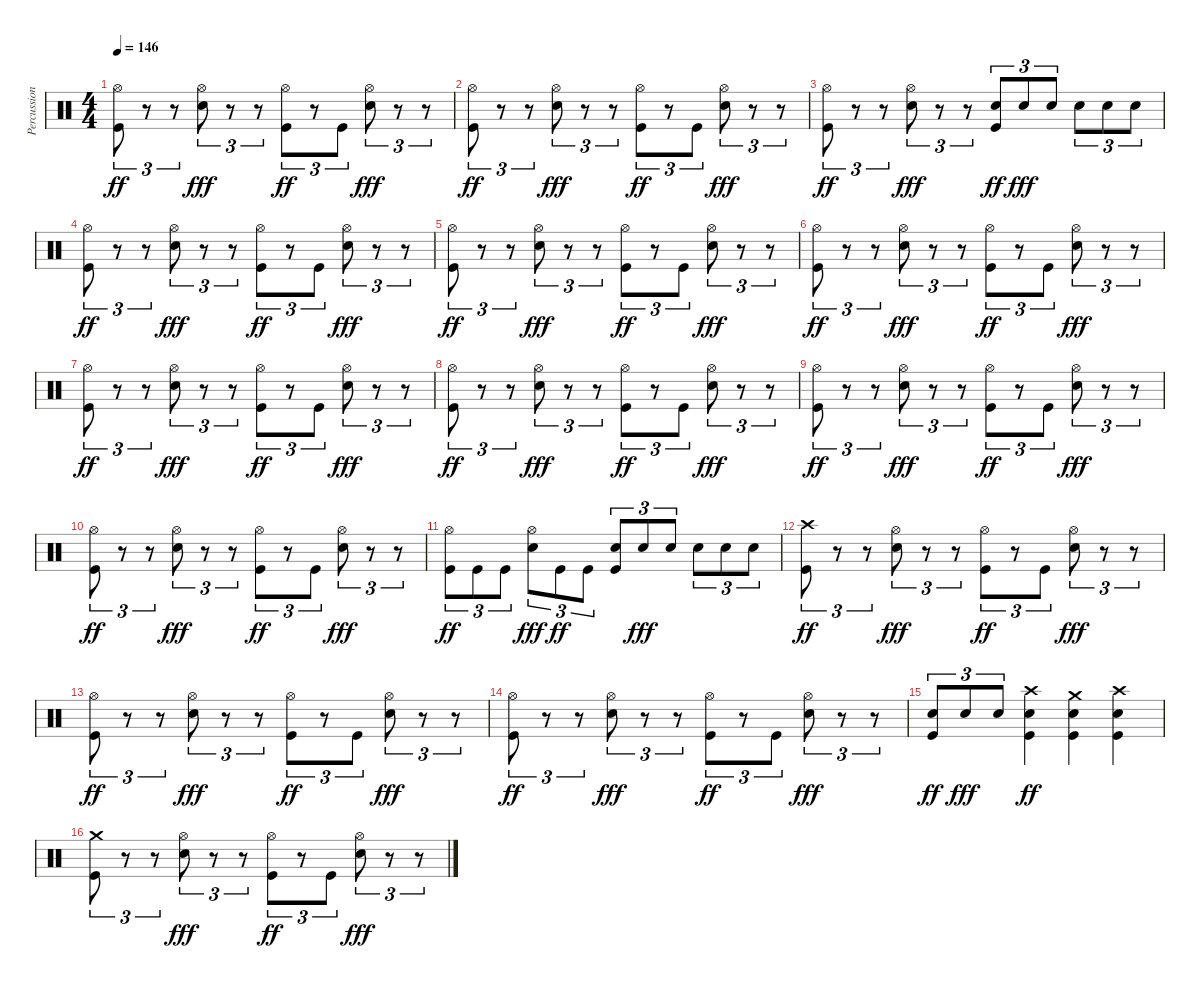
\track ("Percussion" "Percussion") {instrument percussion}
\staff {score}
\articulation defaults
\ts (4 4)
\tempo 146
\clef neutral
\ks c
("Hi-Hat (open)" "Kick (hit)").8{tu (3 2) dy ff} r.8{tu (3 2)} r.8{tu (3 2)} ("Hi-Hat (open)" "Snare (hit) 2").8{tu (3 2) dy fff} r.8{tu (3 2)} r.8{tu (3 2)} ("Hi-Hat (open)" "Kick (hit)").8{tu (3 2) dy ff} r.8{tu (3 2)} "Kick (hit)".8{tu (3 2)} ("Hi-Hat (open)" "Snare (hit) 2").8{tu (3 2) dy fff} r.8{tu (3 2)} r.8{tu (3 2)} |
("Hi-Hat (open)" "Kick (hit)").8{tu (3 2) dy ff} r.8{tu (3 2)} r.8{tu (3 2)} ("Hi-Hat (open)" "Snare (hit) 2").8{tu (3 2) dy fff} r.8{tu (3 2)} r.8{tu (3 2)} ("Hi-Hat (open)" "Kick (hit)").8{tu (3 2) dy ff} r.8{tu (3 2)} "Kick (hit)".8{tu (3 2)} ("Hi-Hat (open)" "Snare (hit) 2").8{tu (3 2) dy fff} r.8{tu (3 2)} r.8{tu (3 2)} |
("Hi-Hat (open)" "Kick (hit)").8{tu (3 2) dy ff} r.8{tu (3 2)} r.8{tu (3 2)} ("Hi-Hat (open)" "Snare (hit) 2").8{tu (3 2) dy fff} r.8{tu (3 2)} r.8{tu (3 2)} ("Snare (hit) 2" "Kick (hit)").8{tu (3 2) dy ff} "Snare (hit) 2".8{tu (3 2) dy fff} "Snare (hit) 2".8{tu (3 2)} "Snare (hit) 2".8{tu (3 2)} "Snare (hit) 2".8{tu (3 2)} "Snare (hit) 2".8{tu (3 2)} |
("Hi-Hat (open)" "Kick (hit)").8{tu (3 2) dy ff} r.8{tu (3 2)} r.8{tu (3 2)} ("Hi-Hat (open)" "Snare (hit) 2").8{tu (3 2) dy fff} r.8{tu (3 2)} r.8{tu (3 2)} ("Hi-Hat (open)" "Kick (hit)").8{tu (3 2) dy ff} r.8{tu (3 2)} "Kick (hit)".8{tu (3 2)} ("Hi-Hat (open)" "Snare (hit) 2").8{tu (3 2) dy fff} r.8{tu (3 2)} r.8{tu (3 2)} |
("Hi-Hat (open)" "Kick (hit)").8{tu (3 2) dy ff} r.8{tu (3 2)} r.8{tu (3 2)} ("Hi-Hat (open)" "Snare (hit) 2").8{tu (3 2) dy fff} r.8{tu (3 2)} r.8{tu (3 2)} ("Hi-Hat (open)" "Kick (hit)").8{tu (3 2) dy ff} r.8{tu (3 2)} "Kick (hit)".8{tu (3 2)} ("Hi-Hat (open)" "Snare (hit) 2").8{tu (3 2) dy fff} r.8{tu (3 2)} r.8{tu (3 2)} |
("Hi-Hat (open)" "Kick (hit)").8{tu (3 2) dy ff} r.8{tu (3 2)} r.8{tu (3 2)} ("Hi-Hat (open)" "Snare (hit) 2").8{tu (3 2) dy fff} r.8{tu (3 2)} r.8{tu (3 2)} ("Hi-Hat (open)" "Kick (hit)").8{tu (3 2) dy ff} r.8{tu (3 2)} "Kick (hit)".8{tu (3 2)} ("Hi-Hat (open)" "Snare (hit) 2").8{tu (3 2) dy fff} r.8{tu (3 2)} r.8{tu (3 2)} |
("Hi-Hat (open)" "Kick (hit)").8{tu (3 2) dy ff} r.8{tu (3 2)} r.8{tu (3 2)} ("Hi-Hat (open)" "Snare (hit) 2").8{tu (3 2) dy fff} r.8{tu (3 2)} r.8{tu (3 2)} ("Hi-Hat (open)" "Kick (hit)").8{tu (3 2) dy ff} r.8{tu (3 2)} "Kick (hit)".8{tu (3 2)} ("Hi-Hat (open)" "Snare (hit) 2").8{tu (3 2) dy fff} r.8{tu (3 2)} r.8{tu (3 2)} |
("Hi-Hat (open)" "Kick (hit)").8{tu (3 2) dy ff} r.8{tu (3 2)} r.8{tu (3 2)} ("Hi-Hat (open)" "Snare (hit) 2").8{tu (3 2) dy fff} r.8{tu (3 2)} r.8{tu (3 2)} ("Hi-Hat (open)" "Kick (hit)").8{tu (3 2) dy ff} r.8{tu (3 2)} "Kick (hit)".8{tu (3 2)} ("Hi-Hat (open)" "Snare (hit) 2").8{tu (3 2) dy fff} r.8{tu (3 2)} r.8{tu (3 2)} |
("Hi-Hat (open)" "Kick (hit)").8{tu (3 2) dy ff} r.8{tu (3 2)} r.8{tu (3 2)} ("Hi-Hat (open)" "Snare (hit) 2").8{tu (3 2) dy fff} r.8{tu (3 2)} r.8{tu (3 2)} ("Hi-Hat (open)" "Kick (hit)").8{tu (3 2) dy ff} r.8{tu (3 2)} "Kick (hit)".8{tu (3 2)} ("Hi-Hat (open)" "Snare (hit) 2").8{tu (3 2) dy fff} r.8{tu (3 2)} r.8{tu (3 2)} |
("Hi-Hat (open)" "Kick (hit)").8{tu (3 2) dy ff} r.8{tu (3 2)} r.8{tu (3 2)} ("Hi-Hat (open)" "Snare (hit) 2").8{tu (3 2) dy fff} r.8{tu (3 2)} r.8{tu (3 2)} ("Hi-Hat (open)" "Kick (hit)").8{tu (3 2) dy ff} r.8{tu (3 2)} "Kick (hit)".8{tu (3 2)} ("Hi-Hat (open)" "Snare (hit) 2").8{tu (3 2) dy fff} r.8{tu (3 2)} r.8{tu (3 2)} |
("Hi-Hat (open)" "Kick (hit)").8{tu (3 2) dy ff} "Kick (hit)".8{tu (3 2)} "Kick (hit)".8{tu (3 2)} ("Hi-Hat (open)" "Snare (hit) 2").8{tu (3 2) dy fff} "Kick (hit)".8{tu (3 2) dy ff} "Kick (hit)".8{tu (3 2)} ("Snare (hit) 2" "Kick (hit)").8{tu (3 2)} "Snare (hit) 2".8{tu (3 2) dy fff} "Snare (hit) 2".8{tu (3 2)} "Snare (hit) 2".8{tu (3 2)} "Snare (hit) 2".8{tu (3 2)} "Snare (hit) 2".8{tu (3 2)} |
("Crash high (hit)" "Kick (hit)").8{tu (3 2) dy ff} r.8{tu (3 2)} r.8{tu (3 2)} ("Hi-Hat (open)" "Snare (hit) 2").8{tu (3 2) dy fff} r.8{tu (3 2)} r.8{tu (3 2)} ("Hi-Hat (open)" "Kick (hit)").8{tu (3 2) dy ff} r.8{tu (3 2)} "Kick (hit)".8{tu (3 2)} ("Hi-Hat (open)" "Snare (hit) 2").8{tu (3 2) dy fff} r.8{tu (3 2)} r.8{tu (3 2)} |
("Hi-Hat (open)" "Kick (hit)").8{tu (3 2) dy ff} r.8{tu (3 2)} r.8{tu (3 2)} ("Hi-Hat (open)" "Snare (hit) 2").8{tu (3 2) dy fff} r.8{tu (3 2)} r.8{tu (3 2)} ("Hi-Hat (open)" "Kick (hit)").8{tu (3 2) dy ff} r.8{tu (3 2)} "Kick (hit)".8{tu (3 2)} ("Hi-Hat (open)" "Snare (hit) 2").8{tu (3 2) dy fff} r.8{tu (3 2)} r.8{tu (3 2)} |
("Hi-Hat (open)" "Kick (hit)").8{tu (3 2) dy ff} r.8{tu (3 2)} r.8{tu (3 2)} ("Hi-Hat (open)" "Snare (hit) 2").8{tu (3 2) dy fff} r.8{tu (3 2)} r.8{tu (3 2)} ("Hi-Hat (open)" "Kick (hit)").8{tu (3 2) dy ff} r.8{tu (3 2)} "Kick (hit)".8{tu (3 2)} ("Hi-Hat (open)" "Snare (hit) 2").8{tu (3 2) dy fff} r.8{tu (3 2)} r.8{tu (3 2)} |
("Snare (hit) 2" "Kick (hit)").8{tu (3 2) dy ff} "Snare (hit) 2".8{tu (3 2) dy fff} "Snare (hit) 2".8{tu (3 2)} ("Crash high (hit)" "Snare (hit) 2" "Kick (hit)").4{dy ff} ("Crash medium (hit)" "Snare (hit) 2" "Kick (hit)").4 ("Crash high (hit)" "Snare (hit) 2" "Kick (hit)").4 |
("Crash medium (hit)" "Kick (hit)").8{tu (3 2)} r.8{tu (3 2)} r.8{tu (3 2)} ("Hi-Hat (open)" "Snare (hit) 2").8{tu (3 2) dy fff} r.8{tu (3 2)} r.8{tu (3 2)} ("Hi-Hat (open)" "Kick (hit)").8{tu (3 2) dy ff} r.8{tu (3 2)} "Kick (hit)".8{tu (3 2)} ("Hi-Hat (open)" "Snare (hit) 2").8{tu (3 2) dy fff} r.8{tu (3 2)} r.8{tu (3 2)}
